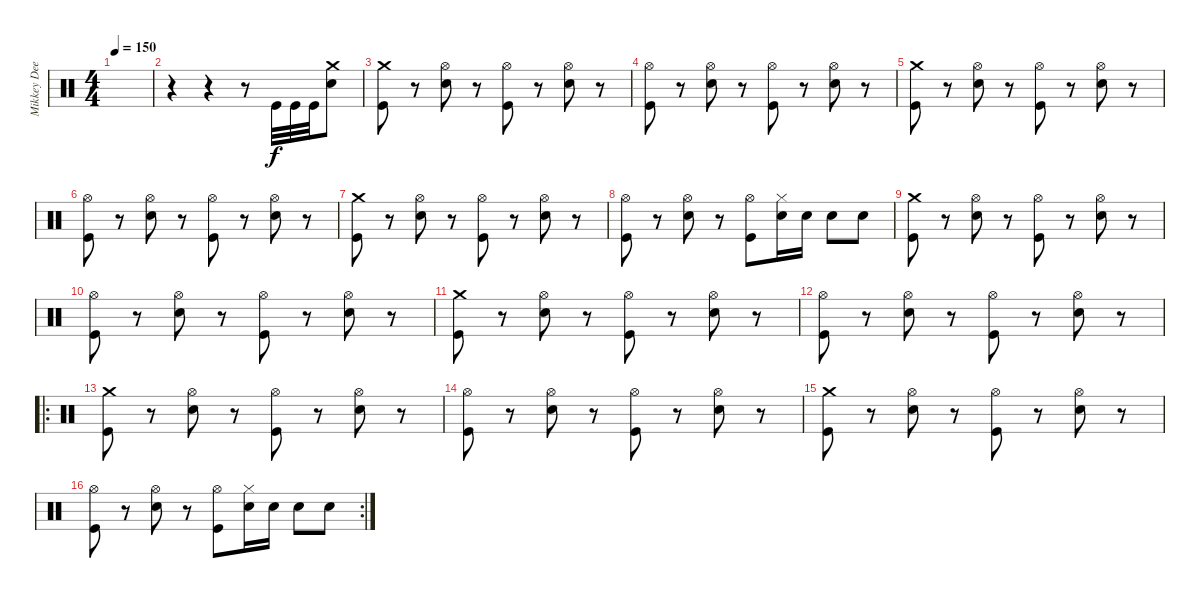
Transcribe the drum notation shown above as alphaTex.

\track ("Mikkey Dee" "Mikkey Dee") {instrument percussion}
\staff {score}
\articulation defaults
\ts (4 4)
\tempo 150
\clef neutral
\ks c
|
r.4 r.4 r.8 "Kick (hit)".32 "Kick (hit)".32 "Kick (hit)".32 ("Crash medium (hit)" "Snare (hit) 2").8 |
("Crash medium (hit)" "Kick (hit)").8 r.8 ("Hi-Hat (open)" "Snare (hit) 2").8 r.8 ("Hi-Hat (open)" "Kick (hit)").8 r.8 ("Hi-Hat (open)" "Snare (hit) 2").8 r.8 |
("Hi-Hat (open)" "Kick (hit)").8 r.8 ("Hi-Hat (open)" "Snare (hit) 2").8 r.8 ("Hi-Hat (open)" "Kick (hit)").8 r.8 ("Hi-Hat (open)" "Snare (hit) 2").8 r.8 |
("Crash medium (hit)" "Kick (hit)").8 r.8 ("Hi-Hat (open)" "Snare (hit) 2").8 r.8 ("Hi-Hat (open)" "Kick (hit)").8 r.8 ("Hi-Hat (open)" "Snare (hit) 2").8 r.8 |
("Hi-Hat (open)" "Kick (hit)").8 r.8 ("Hi-Hat (open)" "Snare (hit) 2").8 r.8 ("Hi-Hat (open)" "Kick (hit)").8 r.8 ("Hi-Hat (open)" "Snare (hit) 2").8 r.8 |
("Crash medium (hit)" "Kick (hit)").8 r.8 ("Hi-Hat (open)" "Snare (hit) 2").8 r.8 ("Hi-Hat (open)" "Kick (hit)").8 r.8 ("Hi-Hat (open)" "Snare (hit) 2").8 r.8 |
("Hi-Hat (open)" "Kick (hit)").8 r.8 ("Hi-Hat (open)" "Snare (hit) 2").8 r.8 ("Hi-Hat (open)" "Kick (hit)").8 ("Hi-Hat (closed)" "Snare (hit) 2").16 "Snare (hit) 2".16 "Snare (hit) 2".8 "Snare (hit) 2".8 |
("Crash medium (hit)" "Kick (hit)").8 r.8 ("Hi-Hat (open)" "Snare (hit) 2").8 r.8 ("Hi-Hat (open)" "Kick (hit)").8 r.8 ("Hi-Hat (open)" "Snare (hit) 2").8 r.8 |
("Hi-Hat (open)" "Kick (hit)").8 r.8 ("Hi-Hat (open)" "Snare (hit) 2").8 r.8 ("Hi-Hat (open)" "Kick (hit)").8 r.8 ("Hi-Hat (open)" "Snare (hit) 2").8 r.8 |
("Crash medium (hit)" "Kick (hit)").8 r.8 ("Hi-Hat (open)" "Snare (hit) 2").8 r.8 ("Hi-Hat (open)" "Kick (hit)").8 r.8 ("Hi-Hat (open)" "Snare (hit) 2").8 r.8 |
("Hi-Hat (open)" "Kick (hit)").8 r.8 ("Hi-Hat (open)" "Snare (hit) 2").8 r.8 ("Hi-Hat (open)" "Kick (hit)").8 r.8 ("Hi-Hat (open)" "Snare (hit) 2").8 r.8 |
\ro
("Crash medium (hit)" "Kick (hit)").8 r.8 ("Hi-Hat (open)" "Snare (hit) 2").8 r.8 ("Hi-Hat (open)" "Kick (hit)").8 r.8 ("Hi-Hat (open)" "Snare (hit) 2").8 r.8 |
("Hi-Hat (open)" "Kick (hit)").8 r.8 ("Hi-Hat (open)" "Snare (hit) 2").8 r.8 ("Hi-Hat (open)" "Kick (hit)").8 r.8 ("Hi-Hat (open)" "Snare (hit) 2").8 r.8 |
("Crash medium (hit)" "Kick (hit)").8 r.8 ("Hi-Hat (open)" "Snare (hit) 2").8 r.8 ("Hi-Hat (open)" "Kick (hit)").8 r.8 ("Hi-Hat (open)" "Snare (hit) 2").8 r.8 |
\rc 2
("Hi-Hat (open)" "Kick (hit)").8 r.8 ("Hi-Hat (open)" "Snare (hit) 2").8 r.8 ("Hi-Hat (open)" "Kick (hit)").8 ("Hi-Hat (closed)" "Snare (hit) 2").16 "Snare (hit) 2".16 "Snare (hit) 2".8 "Snare (hit) 2".8
